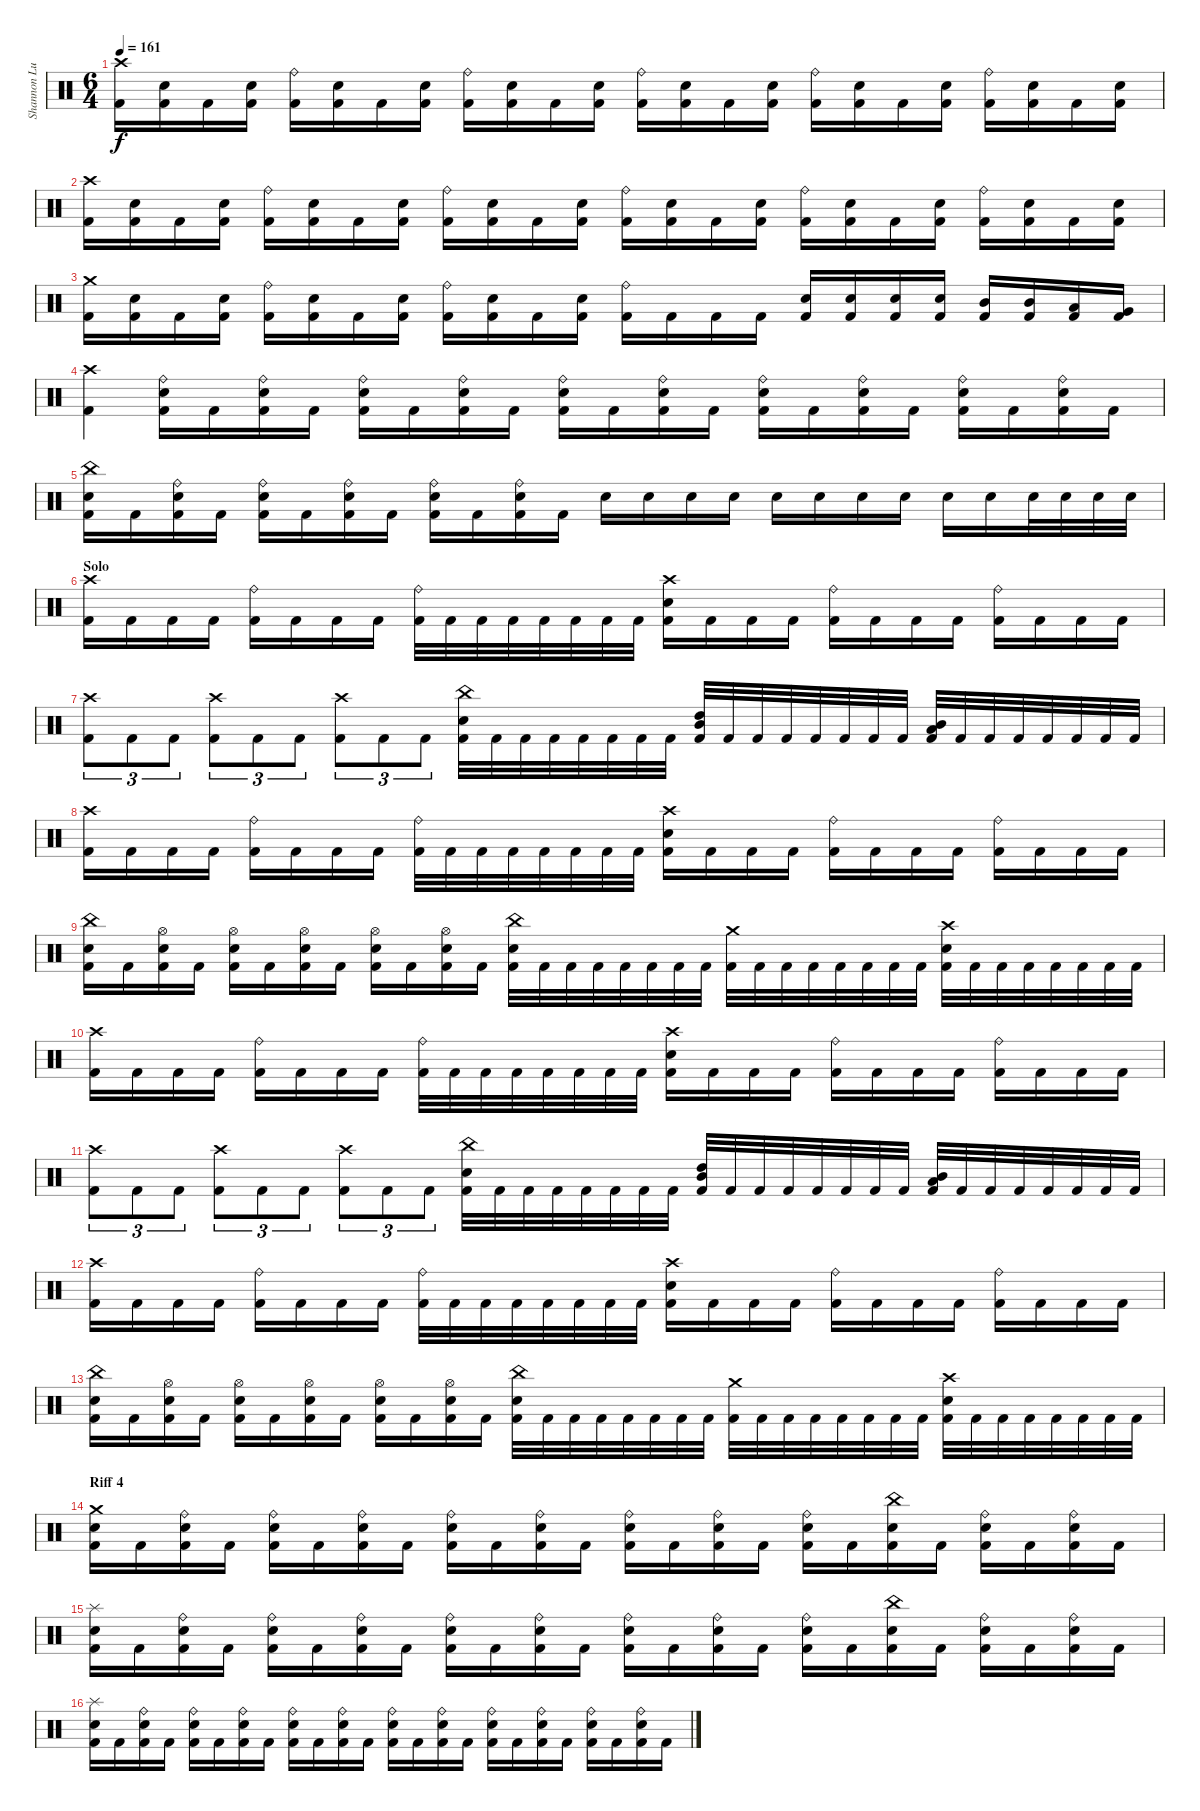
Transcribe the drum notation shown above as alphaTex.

\track ("Shannon Lucas (Drums)" "Shannon Lu") {instrument percussion}
\staff {score}
\articulation defaults
\ts (6 4)
\tempo 161
\clef neutral
\ks c
("Crash high (hit)" "Kick (hit) 2").16{dy f} ("Snare (hit) 2" "Kick (hit) 2").16 "Kick (hit) 2".16 ("Snare (hit) 2" "Kick (hit) 2").16 ("Ride (bell)" "Kick (hit) 2").16 ("Snare (hit) 2" "Kick (hit) 2").16 "Kick (hit) 2".16 ("Snare (hit) 2" "Kick (hit) 2").16 ("Ride (bell)" "Kick (hit) 2").16 ("Snare (hit) 2" "Kick (hit) 2").16 "Kick (hit) 2".16 ("Snare (hit) 2" "Kick (hit) 2").16 ("Ride (bell)" "Kick (hit) 2").16 ("Snare (hit) 2" "Kick (hit) 2").16 "Kick (hit) 2".16 ("Snare (hit) 2" "Kick (hit) 2").16 ("Ride (bell)" "Kick (hit) 2").16 ("Snare (hit) 2" "Kick (hit) 2").16 "Kick (hit) 2".16 ("Snare (hit) 2" "Kick (hit) 2").16 ("Ride (bell)" "Kick (hit) 2").16 ("Snare (hit) 2" "Kick (hit) 2").16 "Kick (hit) 2".16 ("Snare (hit) 2" "Kick (hit) 2").16 |
("Crash high (hit)" "Kick (hit) 2").16 ("Snare (hit) 2" "Kick (hit) 2").16 "Kick (hit) 2".16 ("Snare (hit) 2" "Kick (hit) 2").16 ("Ride (bell)" "Kick (hit) 2").16 ("Snare (hit) 2" "Kick (hit) 2").16 "Kick (hit) 2".16 ("Snare (hit) 2" "Kick (hit) 2").16 ("Ride (bell)" "Kick (hit) 2").16 ("Snare (hit) 2" "Kick (hit) 2").16 "Kick (hit) 2".16 ("Snare (hit) 2" "Kick (hit) 2").16 ("Ride (bell)" "Kick (hit) 2").16 ("Snare (hit) 2" "Kick (hit) 2").16 "Kick (hit) 2".16 ("Snare (hit) 2" "Kick (hit) 2").16 ("Ride (bell)" "Kick (hit) 2").16 ("Snare (hit) 2" "Kick (hit) 2").16 "Kick (hit) 2".16 ("Snare (hit) 2" "Kick (hit) 2").16 ("Ride (bell)" "Kick (hit) 2").16 ("Snare (hit) 2" "Kick (hit) 2").16 "Kick (hit) 2".16 ("Snare (hit) 2" "Kick (hit) 2").16 |
("Crash medium (hit)" "Kick (hit) 2").16 ("Snare (hit) 2" "Kick (hit) 2").16 "Kick (hit) 2".16 ("Snare (hit) 2" "Kick (hit) 2").16 ("Ride (bell)" "Kick (hit) 2").16 ("Snare (hit) 2" "Kick (hit) 2").16 "Kick (hit) 2".16 ("Snare (hit) 2" "Kick (hit) 2").16 ("Ride (bell)" "Kick (hit) 2").16 ("Snare (hit) 2" "Kick (hit) 2").16 "Kick (hit) 2".16 ("Snare (hit) 2" "Kick (hit) 2").16 ("Ride (bell)" "Kick (hit) 2").16 "Kick (hit) 2".16 "Kick (hit) 2".16 "Kick (hit) 2".16 ("Snare (hit) 2" "Kick (hit) 2").16 ("Snare (hit) 2" "Kick (hit) 2").16 ("Snare (hit) 2" "Kick (hit) 2").16 ("Snare (hit) 2" "Kick (hit) 2").16 ("Mid Tom (hit)" "Kick (hit) 2").16 ("Mid Tom (hit)" "Kick (hit) 2").16 ("Low Tom (hit)" "Kick (hit) 2").16 ("Very Low Tom (hit)" "Kick (hit) 2").16 |
("Crash high (hit)" "Kick (hit) 2").4 ("Ride (bell)" "Snare (hit) 2" "Kick (hit) 2").16 "Kick (hit) 2".16 ("Ride (bell)" "Snare (hit) 2" "Kick (hit) 2").16 "Kick (hit) 2".16 ("Ride (bell)" "Snare (hit) 2" "Kick (hit) 2").16 "Kick (hit) 2".16 ("Ride (bell)" "Snare (hit) 2" "Kick (hit) 2").16 "Kick (hit) 2".16 ("Ride (bell)" "Snare (hit) 2" "Kick (hit) 2").16 "Kick (hit) 2".16 ("Ride (bell)" "Snare (hit) 2" "Kick (hit) 2").16 "Kick (hit) 2".16 ("Ride (bell)" "Snare (hit) 2" "Kick (hit) 2").16 "Kick (hit) 2".16 ("Ride (bell)" "Snare (hit) 2" "Kick (hit) 2").16 "Kick (hit) 2".16 ("Ride (bell)" "Snare (hit) 2" "Kick (hit) 2").16 "Kick (hit) 2".16 ("Ride (bell)" "Snare (hit) 2" "Kick (hit) 2").16 "Kick (hit) 2".16 |
("China (hit)" "Snare (hit) 2" "Kick (hit) 2").16 "Kick (hit) 2".16 ("Ride (bell)" "Snare (hit) 2" "Kick (hit) 2").16 "Kick (hit) 2".16 ("Ride (bell)" "Snare (hit) 2" "Kick (hit) 2").16 "Kick (hit) 2".16 ("Ride (bell)" "Snare (hit) 2" "Kick (hit) 2").16 "Kick (hit) 2".16 ("Ride (bell)" "Snare (hit) 2" "Kick (hit) 2").16 "Kick (hit) 2".16 ("Ride (bell)" "Snare (hit) 2" "Kick (hit) 2").16 "Kick (hit) 2".16 "Snare (hit) 2".16 "Snare (hit) 2".16 "Snare (hit) 2".16 "Snare (hit) 2".16 "Snare (hit) 2".16 "Snare (hit) 2".16 "Snare (hit) 2".16 "Snare (hit) 2".16 "Snare (hit) 2".16 "Snare (hit) 2".16 "Snare (hit) 2".32 "Snare (hit) 2".32 "Snare (hit) 2".32 "Snare (hit) 2".32 |
\section ("" "Solo")
("Crash high (hit)" "Kick (hit) 2").16 "Kick (hit) 2".16 "Kick (hit) 2".16 "Kick (hit) 2".16 ("Ride (bell)" "Kick (hit) 2").16 "Kick (hit) 2".16 "Kick (hit) 2".16 "Kick (hit) 2".16 ("Ride (bell)" "Kick (hit) 2").32 "Kick (hit) 2".32 "Kick (hit) 2".32 "Kick (hit) 2".32 "Kick (hit) 2".32 "Kick (hit) 2".32 "Kick (hit) 2".32 "Kick (hit) 2".32 ("Crash high (hit)" "Snare (hit) 2" "Kick (hit) 2").16 "Kick (hit) 2".16 "Kick (hit) 2".16 "Kick (hit) 2".16 ("Ride (bell)" "Kick (hit) 2").16 "Kick (hit) 2".16 "Kick (hit) 2".16 "Kick (hit) 2".16 ("Ride (bell)" "Kick (hit) 2").16 "Kick (hit) 2".16 "Kick (hit) 2".16 "Kick (hit) 2".16 |
("Crash high (hit)" "Kick (hit) 2").8{tu (3 2)} "Kick (hit) 2".8{tu (3 2)} "Kick (hit) 2".8{tu (3 2)} ("Crash high (hit)" "Kick (hit) 2").8{tu (3 2)} "Kick (hit) 2".8{tu (3 2)} "Kick (hit) 2".8{tu (3 2)} ("Crash high (hit)" "Kick (hit) 2").8{tu (3 2)} "Kick (hit) 2".8{tu (3 2)} "Kick (hit) 2".8{tu (3 2)} ("China (hit)" "Snare (hit) 2" "Kick (hit) 2").32 "Kick (hit) 2".32 "Kick (hit) 2".32 "Kick (hit) 2".32 "Kick (hit) 2".32 "Kick (hit) 2".32 "Kick (hit) 2".32 "Kick (hit) 2".32 ("Mid Tom (hit)" "High Tom (hit)" "Kick (hit) 2").32 "Kick (hit) 2".32 "Kick (hit) 2".32 "Kick (hit) 2".32 "Kick (hit) 2".32 "Kick (hit) 2".32 "Kick (hit) 2".32 "Kick (hit) 2".32 ("Low Tom (hit)" "Mid Tom (hit)" "Kick (hit) 2").32 "Kick (hit) 2".32 "Kick (hit) 2".32 "Kick (hit) 2".32 "Kick (hit) 2".32 "Kick (hit) 2".32 "Kick (hit) 2".32 "Kick (hit) 2".32 |
("Crash high (hit)" "Kick (hit) 2").16 "Kick (hit) 2".16 "Kick (hit) 2".16 "Kick (hit) 2".16 ("Ride (bell)" "Kick (hit) 2").16 "Kick (hit) 2".16 "Kick (hit) 2".16 "Kick (hit) 2".16 ("Ride (bell)" "Kick (hit) 2").32 "Kick (hit) 2".32 "Kick (hit) 2".32 "Kick (hit) 2".32 "Kick (hit) 2".32 "Kick (hit) 2".32 "Kick (hit) 2".32 "Kick (hit) 2".32 ("Crash high (hit)" "Snare (hit) 2" "Kick (hit) 2").16 "Kick (hit) 2".16 "Kick (hit) 2".16 "Kick (hit) 2".16 ("Ride (bell)" "Kick (hit) 2").16 "Kick (hit) 2".16 "Kick (hit) 2".16 "Kick (hit) 2".16 ("Ride (bell)" "Kick (hit) 2").16 "Kick (hit) 2".16 "Kick (hit) 2".16 "Kick (hit) 2".16 |
("China (hit)" "Snare (hit) 2" "Kick (hit) 2").16 "Kick (hit) 2".16 ("Hi-Hat (open)" "Snare (hit) 2" "Kick (hit) 2").16 "Kick (hit) 2".16 ("Hi-Hat (open)" "Snare (hit) 2" "Kick (hit) 2").16 "Kick (hit) 2".16 ("Hi-Hat (open)" "Snare (hit) 2" "Kick (hit) 2").16 "Kick (hit) 2".16 ("Hi-Hat (open)" "Snare (hit) 2" "Kick (hit) 2").16 "Kick (hit) 2".16 ("Hi-Hat (open)" "Snare (hit) 2" "Kick (hit) 2").16 "Kick (hit) 2".16 ("China (hit)" "Snare (hit) 2" "Kick (hit) 2").32 "Kick (hit) 2".32 "Kick (hit) 2".32 "Kick (hit) 2".32 "Kick (hit) 2".32 "Kick (hit) 2".32 "Kick (hit) 2".32 "Kick (hit) 2".32 ("Crash medium (hit)" "Kick (hit) 2").32 "Kick (hit) 2".32 "Kick (hit) 2".32 "Kick (hit) 2".32 "Kick (hit) 2".32 "Kick (hit) 2".32 "Kick (hit) 2".32 "Kick (hit) 2".32 ("Snare (hit) 2" "Crash high (hit)" "Kick (hit) 2").32 "Kick (hit) 2".32 "Kick (hit) 2".32 "Kick (hit) 2".32 "Kick (hit) 2".32 "Kick (hit) 2".32 "Kick (hit) 2".32 "Kick (hit) 2".32 |
("Crash high (hit)" "Kick (hit) 2").16 "Kick (hit) 2".16 "Kick (hit) 2".16 "Kick (hit) 2".16 ("Ride (bell)" "Kick (hit) 2").16 "Kick (hit) 2".16 "Kick (hit) 2".16 "Kick (hit) 2".16 ("Ride (bell)" "Kick (hit) 2").32 "Kick (hit) 2".32 "Kick (hit) 2".32 "Kick (hit) 2".32 "Kick (hit) 2".32 "Kick (hit) 2".32 "Kick (hit) 2".32 "Kick (hit) 2".32 ("Crash high (hit)" "Snare (hit) 2" "Kick (hit) 2").16 "Kick (hit) 2".16 "Kick (hit) 2".16 "Kick (hit) 2".16 ("Ride (bell)" "Kick (hit) 2").16 "Kick (hit) 2".16 "Kick (hit) 2".16 "Kick (hit) 2".16 ("Ride (bell)" "Kick (hit) 2").16 "Kick (hit) 2".16 "Kick (hit) 2".16 "Kick (hit) 2".16 |
("Crash high (hit)" "Kick (hit) 2").8{tu (3 2)} "Kick (hit) 2".8{tu (3 2)} "Kick (hit) 2".8{tu (3 2)} ("Crash high (hit)" "Kick (hit) 2").8{tu (3 2)} "Kick (hit) 2".8{tu (3 2)} "Kick (hit) 2".8{tu (3 2)} ("Crash high (hit)" "Kick (hit) 2").8{tu (3 2)} "Kick (hit) 2".8{tu (3 2)} "Kick (hit) 2".8{tu (3 2)} ("China (hit)" "Snare (hit) 2" "Kick (hit) 2").32 "Kick (hit) 2".32 "Kick (hit) 2".32 "Kick (hit) 2".32 "Kick (hit) 2".32 "Kick (hit) 2".32 "Kick (hit) 2".32 "Kick (hit) 2".32 ("Mid Tom (hit)" "High Tom (hit)" "Kick (hit) 2").32 "Kick (hit) 2".32 "Kick (hit) 2".32 "Kick (hit) 2".32 "Kick (hit) 2".32 "Kick (hit) 2".32 "Kick (hit) 2".32 "Kick (hit) 2".32 ("Low Tom (hit)" "Mid Tom (hit)" "Kick (hit) 2").32 "Kick (hit) 2".32 "Kick (hit) 2".32 "Kick (hit) 2".32 "Kick (hit) 2".32 "Kick (hit) 2".32 "Kick (hit) 2".32 "Kick (hit) 2".32 |
("Crash high (hit)" "Kick (hit) 2").16 "Kick (hit) 2".16 "Kick (hit) 2".16 "Kick (hit) 2".16 ("Ride (bell)" "Kick (hit) 2").16 "Kick (hit) 2".16 "Kick (hit) 2".16 "Kick (hit) 2".16 ("Ride (bell)" "Kick (hit) 2").32 "Kick (hit) 2".32 "Kick (hit) 2".32 "Kick (hit) 2".32 "Kick (hit) 2".32 "Kick (hit) 2".32 "Kick (hit) 2".32 "Kick (hit) 2".32 ("Crash high (hit)" "Snare (hit) 2" "Kick (hit) 2").16 "Kick (hit) 2".16 "Kick (hit) 2".16 "Kick (hit) 2".16 ("Ride (bell)" "Kick (hit) 2").16 "Kick (hit) 2".16 "Kick (hit) 2".16 "Kick (hit) 2".16 ("Ride (bell)" "Kick (hit) 2").16 "Kick (hit) 2".16 "Kick (hit) 2".16 "Kick (hit) 2".16 |
("China (hit)" "Snare (hit) 2" "Kick (hit) 2").16 "Kick (hit) 2".16 ("Hi-Hat (open)" "Snare (hit) 2" "Kick (hit) 2").16 "Kick (hit) 2".16 ("Hi-Hat (open)" "Snare (hit) 2" "Kick (hit) 2").16 "Kick (hit) 2".16 ("Hi-Hat (open)" "Snare (hit) 2" "Kick (hit) 2").16 "Kick (hit) 2".16 ("Hi-Hat (open)" "Snare (hit) 2" "Kick (hit) 2").16 "Kick (hit) 2".16 ("Hi-Hat (open)" "Snare (hit) 2" "Kick (hit) 2").16 "Kick (hit) 2".16 ("China (hit)" "Snare (hit) 2" "Kick (hit) 2").32 "Kick (hit) 2".32 "Kick (hit) 2".32 "Kick (hit) 2".32 "Kick (hit) 2".32 "Kick (hit) 2".32 "Kick (hit) 2".32 "Kick (hit) 2".32 ("Crash medium (hit)" "Kick (hit) 2").32 "Kick (hit) 2".32 "Kick (hit) 2".32 "Kick (hit) 2".32 "Kick (hit) 2".32 "Kick (hit) 2".32 "Kick (hit) 2".32 "Kick (hit) 2".32 ("Snare (hit) 2" "Crash high (hit)" "Kick (hit) 2").32 "Kick (hit) 2".32 "Kick (hit) 2".32 "Kick (hit) 2".32 "Kick (hit) 2".32 "Kick (hit) 2".32 "Kick (hit) 2".32 "Kick (hit) 2".32 |
\section ("" "Riff 4")
("Crash medium (hit)" "Snare (hit) 2" "Kick (hit) 2").16 "Kick (hit) 2".16 ("Ride (bell)" "Snare (hit) 2" "Kick (hit) 2").16 "Kick (hit) 2".16 ("Ride (bell)" "Snare (hit) 2" "Kick (hit) 2").16 "Kick (hit) 2".16 ("Ride (bell)" "Snare (hit) 2" "Kick (hit) 2").16 "Kick (hit) 2".16 ("Ride (bell)" "Snare (hit) 2" "Kick (hit) 2").16 "Kick (hit) 2".16 ("Ride (bell)" "Snare (hit) 2" "Kick (hit) 2").16 "Kick (hit) 2".16 ("Ride (bell)" "Snare (hit) 2" "Kick (hit) 2").16 "Kick (hit) 2".16 ("Ride (bell)" "Snare (hit) 2" "Kick (hit) 2").16 "Kick (hit) 2".16 ("Ride (bell)" "Snare (hit) 2" "Kick (hit) 2").16 "Kick (hit) 2".16 ("China (hit)" "Snare (hit) 2" "Kick (hit) 2").16 "Kick (hit) 2".16 ("Ride (bell)" "Snare (hit) 2" "Kick (hit) 2").16 "Kick (hit) 2".16 ("Ride (bell)" "Snare (hit) 2" "Kick (hit) 2").16 "Kick (hit) 2".16 |
("Splash (hit)" "Snare (hit) 2" "Kick (hit) 2").16 "Kick (hit) 2".16 ("Ride (bell)" "Snare (hit) 2" "Kick (hit) 2").16 "Kick (hit) 2".16 ("Ride (bell)" "Snare (hit) 2" "Kick (hit) 2").16 "Kick (hit) 2".16 ("Ride (bell)" "Snare (hit) 2" "Kick (hit) 2").16 "Kick (hit) 2".16 ("Ride (bell)" "Snare (hit) 2" "Kick (hit) 2").16 "Kick (hit) 2".16 ("Ride (bell)" "Snare (hit) 2" "Kick (hit) 2").16 "Kick (hit) 2".16 ("Ride (bell)" "Snare (hit) 2" "Kick (hit) 2").16 "Kick (hit) 2".16 ("Ride (bell)" "Snare (hit) 2" "Kick (hit) 2").16 "Kick (hit) 2".16 ("Ride (bell)" "Snare (hit) 2" "Kick (hit) 2").16 "Kick (hit) 2".16 ("China (hit)" "Snare (hit) 2" "Kick (hit) 2").16 "Kick (hit) 2".16 ("Ride (bell)" "Snare (hit) 2" "Kick (hit) 2").16 "Kick (hit) 2".16 ("Ride (bell)" "Snare (hit) 2" "Kick (hit) 2").16 "Kick (hit) 2".16 |
("Splash (hit)" "Snare (hit) 2" "Kick (hit) 2").16 "Kick (hit) 2".16 ("Ride (bell)" "Snare (hit) 2" "Kick (hit) 2").16 "Kick (hit) 2".16 ("Ride (bell)" "Snare (hit) 2" "Kick (hit) 2").16 "Kick (hit) 2".16 ("Ride (bell)" "Snare (hit) 2" "Kick (hit) 2").16 "Kick (hit) 2".16 ("Ride (bell)" "Snare (hit) 2" "Kick (hit) 2").16 "Kick (hit) 2".16 ("Ride (bell)" "Snare (hit) 2" "Kick (hit) 2").16 "Kick (hit) 2".16 ("Ride (bell)" "Snare (hit) 2" "Kick (hit) 2").16 "Kick (hit) 2".16 ("Ride (bell)" "Snare (hit) 2" "Kick (hit) 2").16 "Kick (hit) 2".16 ("Ride (bell)" "Snare (hit) 2" "Kick (hit) 2").16 "Kick (hit) 2".16 ("Ride (bell)" "Snare (hit) 2" "Kick (hit) 2").16 "Kick (hit) 2".16 ("Ride (bell)" "Snare (hit) 2" "Kick (hit) 2").16 "Kick (hit) 2".16 ("Ride (bell)" "Snare (hit) 2" "Kick (hit) 2").16 "Kick (hit) 2".16
